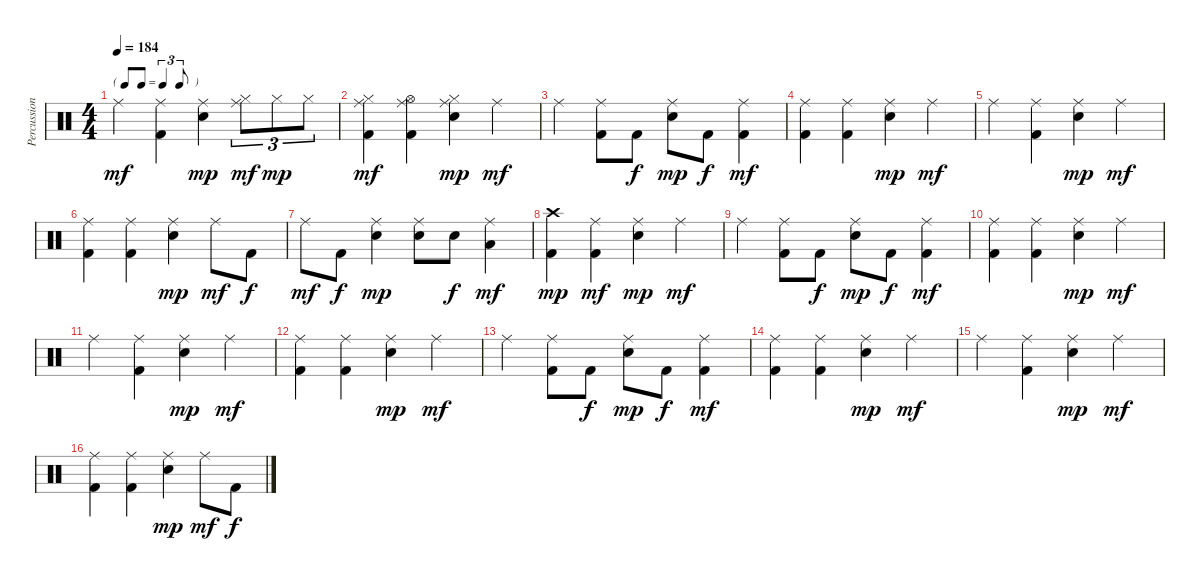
\track ("Percussion" "Percussion") {instrument percussion}
\staff {score}
\articulation defaults
\ts (4 4)
\tf triplet8th
\tempo 184
\clef neutral
\ks c "Ride (middle)".4{dy mf}
("Ride (middle)" "Kick (hit) 2").4 ("Ride (middle)" "Electric Snare (hit)").4{dy mp} ("Hi-Hat (closed)" "Ride (middle)").8{tu (3 2) dy mf} "Hi-Hat (closed)".8{tu (3 2) dy mp} "Hi-Hat (closed)".8{tu (3 2)} |
("Hi-Hat (closed)" "Ride (middle)" "Kick (hit) 2").4{dy mf} ("Hi-Hat (open)" "Ride (middle)" "Kick (hit) 2").4 ("Hi-Hat (closed)" "Ride (middle)" "Electric Snare (hit)").4{dy mp} "Ride (middle)".4{dy mf} |
"Ride (middle)".4 ("Ride (middle)" "Kick (hit) 2").8 "Kick (hit) 2".8{dy f} ("Ride (middle)" "Electric Snare (hit)").8{dy mp} "Kick (hit) 2".8{dy f} ("Ride (middle)" "Kick (hit) 2").4{dy mf} |
("Ride (middle)" "Kick (hit) 2").4 ("Ride (middle)" "Kick (hit) 2").4 ("Ride (middle)" "Electric Snare (hit)").4{dy mp} "Ride (middle)".4{dy mf} |
"Ride (middle)".4 ("Ride (middle)" "Kick (hit) 2").4 ("Ride (middle)" "Electric Snare (hit)").4{dy mp} "Ride (middle)".4{dy mf} |
("Ride (middle)" "Kick (hit) 2").4 ("Ride (middle)" "Kick (hit) 2").4 ("Ride (middle)" "Electric Snare (hit)").4{dy mp} "Ride (middle)".8{dy mf} "Kick (hit) 2".8{dy f} |
"Ride (middle)".8{dy mf} "Kick (hit) 2".8{dy f} ("Ride (middle)" "Electric Snare (hit)").4{dy mp} ("Ride (middle)" "Electric Snare (hit)").8 "Electric Snare (hit)".8{dy f} ("Ride (middle)" "Low Tom (hit)").4{dy mf} |
("Crash high (hit)" "Kick (hit) 2").4{dy mp} ("Ride (middle)" "Kick (hit) 2").4{dy mf} ("Ride (middle)" "Electric Snare (hit)").4{dy mp} "Ride (middle)".4{dy mf} |
"Ride (middle)".4 ("Ride (middle)" "Kick (hit) 2").8 "Kick (hit) 2".8{dy f} ("Ride (middle)" "Electric Snare (hit)").8{dy mp} "Kick (hit) 2".8{dy f} ("Ride (middle)" "Kick (hit) 2").4{dy mf} |
("Ride (middle)" "Kick (hit) 2").4 ("Ride (middle)" "Kick (hit) 2").4 ("Ride (middle)" "Electric Snare (hit)").4{dy mp} "Ride (middle)".4{dy mf} |
"Ride (middle)".4 ("Ride (middle)" "Kick (hit) 2").4 ("Ride (middle)" "Electric Snare (hit)").4{dy mp} "Ride (middle)".4{dy mf} |
("Ride (middle)" "Kick (hit) 2").4 ("Ride (middle)" "Kick (hit) 2").4 ("Ride (middle)" "Electric Snare (hit)").4{dy mp} "Ride (middle)".4{dy mf} |
"Ride (middle)".4 ("Ride (middle)" "Kick (hit) 2").8 "Kick (hit) 2".8{dy f} ("Ride (middle)" "Electric Snare (hit)").8{dy mp} "Kick (hit) 2".8{dy f} ("Ride (middle)" "Kick (hit) 2").4{dy mf} |
("Ride (middle)" "Kick (hit) 2").4 ("Ride (middle)" "Kick (hit) 2").4 ("Ride (middle)" "Electric Snare (hit)").4{dy mp} "Ride (middle)".4{dy mf} |
"Ride (middle)".4 ("Ride (middle)" "Kick (hit) 2").4 ("Ride (middle)" "Electric Snare (hit)").4{dy mp} "Ride (middle)".4{dy mf} |
("Ride (middle)" "Kick (hit) 2").4 ("Ride (middle)" "Kick (hit) 2").4 ("Ride (middle)" "Electric Snare (hit)").4{dy mp} "Ride (middle)".8{dy mf} "Kick (hit) 2".8{dy f}
